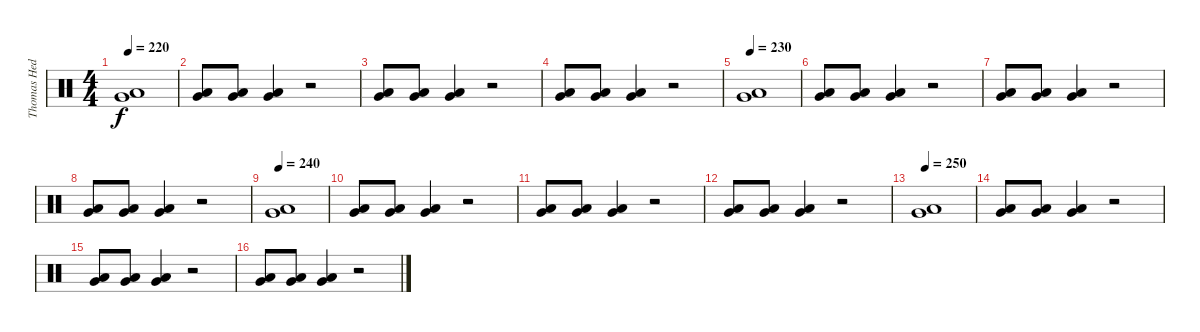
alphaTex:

\track ("Thomas Hedlund" "Thomas Hed") {instrument percussion}
\staff {score}
\articulation defaults
\ts (4 4)
\tempo 220
\clef neutral
\ks c
("Very Low Tom (hit)" "Low Floor Tom (hit)").1{dy f} |
("Very Low Tom (hit)" "Low Floor Tom (hit)").8 ("Very Low Tom (hit)" "Low Floor Tom (hit)").8 ("Very Low Tom (hit)" "Low Floor Tom (hit)").4 r.2 |
("Very Low Tom (hit)" "Low Floor Tom (hit)").8 ("Very Low Tom (hit)" "Low Floor Tom (hit)").8 ("Very Low Tom (hit)" "Low Floor Tom (hit)").4 r.2 |
("Very Low Tom (hit)" "Low Floor Tom (hit)").8 ("Very Low Tom (hit)" "Low Floor Tom (hit)").8 ("Very Low Tom (hit)" "Low Floor Tom (hit)").4 r.2 |
\tempo 230
("Very Low Tom (hit)" "Low Floor Tom (hit)").1 |
("Very Low Tom (hit)" "Low Floor Tom (hit)").8 ("Very Low Tom (hit)" "Low Floor Tom (hit)").8 ("Very Low Tom (hit)" "Low Floor Tom (hit)").4 r.2 |
("Very Low Tom (hit)" "Low Floor Tom (hit)").8 ("Very Low Tom (hit)" "Low Floor Tom (hit)").8 ("Very Low Tom (hit)" "Low Floor Tom (hit)").4 r.2 |
("Very Low Tom (hit)" "Low Floor Tom (hit)").8 ("Very Low Tom (hit)" "Low Floor Tom (hit)").8 ("Very Low Tom (hit)" "Low Floor Tom (hit)").4 r.2 |
\tempo 240
("Very Low Tom (hit)" "Low Floor Tom (hit)").1 |
("Very Low Tom (hit)" "Low Floor Tom (hit)").8 ("Very Low Tom (hit)" "Low Floor Tom (hit)").8 ("Very Low Tom (hit)" "Low Floor Tom (hit)").4 r.2 |
("Very Low Tom (hit)" "Low Floor Tom (hit)").8 ("Very Low Tom (hit)" "Low Floor Tom (hit)").8 ("Very Low Tom (hit)" "Low Floor Tom (hit)").4 r.2 |
("Very Low Tom (hit)" "Low Floor Tom (hit)").8 ("Very Low Tom (hit)" "Low Floor Tom (hit)").8 ("Very Low Tom (hit)" "Low Floor Tom (hit)").4 r.2 |
\tempo 250
("Very Low Tom (hit)" "Low Floor Tom (hit)").1 |
("Very Low Tom (hit)" "Low Floor Tom (hit)").8 ("Very Low Tom (hit)" "Low Floor Tom (hit)").8 ("Very Low Tom (hit)" "Low Floor Tom (hit)").4 r.2 |
("Very Low Tom (hit)" "Low Floor Tom (hit)").8 ("Very Low Tom (hit)" "Low Floor Tom (hit)").8 ("Very Low Tom (hit)" "Low Floor Tom (hit)").4 r.2 |
("Very Low Tom (hit)" "Low Floor Tom (hit)").8 ("Very Low Tom (hit)" "Low Floor Tom (hit)").8 ("Very Low Tom (hit)" "Low Floor Tom (hit)").4 r.2
